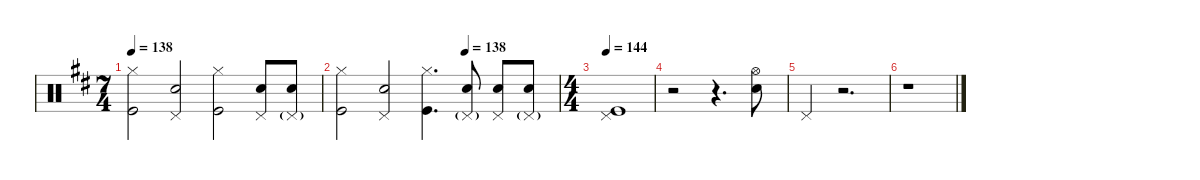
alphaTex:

\defaultSystemsLayout 4
\hideDynamics
\bracketExtendMode nobrackets
\singleTrackTrackNamePolicy hidden
\multiTrackTrackNamePolicy hidden
\firstSystemTrackNameMode fullname
\firstSystemTrackNameOrientation horizontal
\otherSystemsTrackNameOrientation horizontal
\track ("Drums" "drm.") {instrument percussion}
\staff {score}
\articulation defaults
\ts (7 4)
\tempo 138
\clef neutral
\ks d
("Hi-Hat (closed)"{acc forcenatural} "Kick (hit)"{acc forcenatural}).2{dy fff beam Down} ("Pedal Hi-Hat (hit)"{acc forcenatural} "Snare (hit) 2"{acc forcenatural}).2{beam Up} ("Hi-Hat (closed)"{acc forcenatural} "Kick (hit)"{acc forcenatural}).2{beam Down} ("Pedal Hi-Hat (hit)"{acc forcenatural} "Snare (hit) 2"{acc forcenatural}).8{beam Up} ("Pedal Hi-Hat (hit)"{g acc forcenatural} "Snare (hit) 2"{acc forcenatural}).8{beam Up} |
\tempo (138 0.571429)
("Hi-Hat (closed)"{acc forcenatural} "Kick (hit)"{acc forcenatural}).2{beam Down} ("Pedal Hi-Hat (hit)"{acc forcenatural} "Snare (hit) 2"{acc forcenatural}).2{beam Up} ("Hi-Hat (closed)"{acc forcenatural} "Kick (hit)"{acc forcenatural}).4{d beam Down} ("Pedal Hi-Hat (hit)"{g acc forcenatural} "Snare (hit) 2"{acc forcenatural}).8{dy f beam Up} ("Pedal Hi-Hat (hit)"{acc forcenatural} "Snare (hit) 2"{acc forcenatural}).8{dy fff beam Up} ("Pedal Hi-Hat (hit)"{g acc forcenatural} "Snare (hit) 2"{acc forcenatural}).8{beam Up} |
\ts (4 4)
\beaming (8 2 2 2 2)
\tempo 144
("Pedal Hi-Hat (hit)"{acc forcenatural} "Kick (hit)"{acc forcenatural}).1{beam Up} |
r.2{beam Down} r.4{d beam Down} ("Hi-Hat (open)"{acc forcenatural} "Snare (hit) 2"{acc forcenatural}).8{beam Down} |
"Pedal Hi-Hat (hit)"{acc forcenatural}.4{beam Up} r.2{d beam Up} |
r.1{beam Down}
